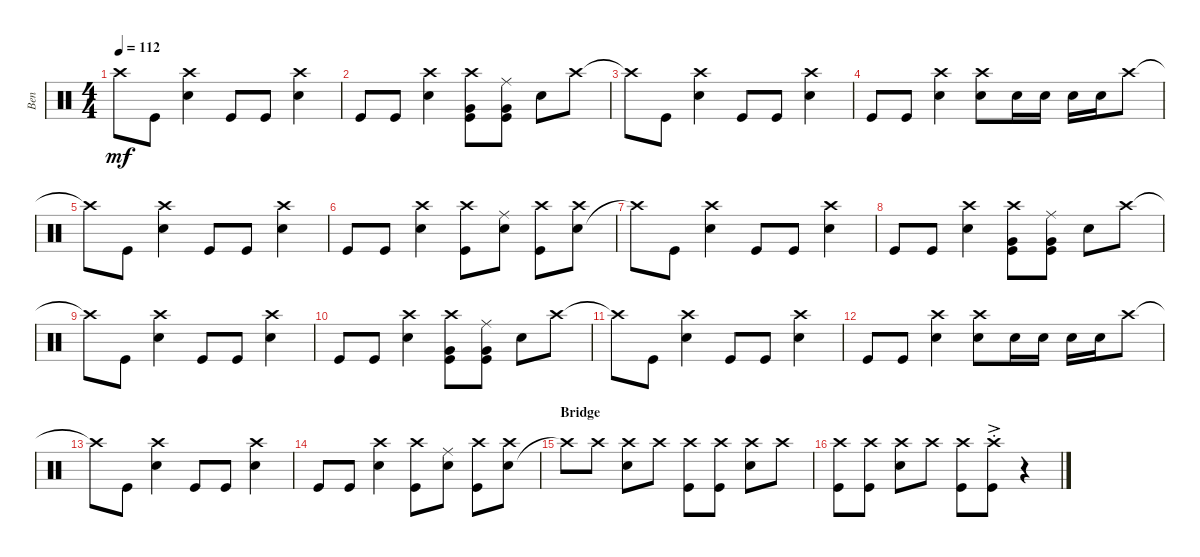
\track ("Ben" "Ben") {instrument percussion}
\staff {score}
\articulation defaults
\ts (4 4)
\tempo 112
\clef neutral
\ks c "Crash high (hit)"{t}.8{dy mf} "Kick (hit)".8
("Snare (hit) 2" "Crash high (hit)").4 "Kick (hit)".8 "Kick (hit)".8 ("Snare (hit) 2" "Crash high (hit)").4 |
"Kick (hit)".8 "Kick (hit)".8 ("Snare (hit) 2" "Crash high (hit)").4 ("Kick (hit)" "Very Low Tom (hit)" "Crash high (hit)").8 ("Kick (hit)" "Very Low Tom (hit)" "Ride (middle)").8 "Snare (hit) 2".8 "Crash high (hit)".8 |
"Crash high (hit)"{t}.8 "Kick (hit)".8 ("Snare (hit) 2" "Crash high (hit)").4 "Kick (hit)".8 "Kick (hit)".8 ("Snare (hit) 2" "Crash high (hit)").4 |
"Kick (hit)".8 "Kick (hit)".8 ("Snare (hit) 2" "Crash high (hit)").4 ("Snare (hit) 2" "Crash high (hit)").8 "Snare (hit) 2".16 "Snare (hit) 2".16 "Snare (hit) 2".16 "Snare (hit) 2".16 "Crash high (hit)".8 |
"Crash high (hit)"{t}.8 "Kick (hit)".8 ("Snare (hit) 2" "Crash high (hit)").4 "Kick (hit)".8 "Kick (hit)".8 ("Snare (hit) 2" "Crash high (hit)").4 |
"Kick (hit)".8 "Kick (hit)".8 ("Snare (hit) 2" "Crash high (hit)").4 ("Kick (hit)" "Crash high (hit)").8 ("Snare (hit) 2" "Ride (middle)").8 ("Kick (hit)" "Crash high (hit)").8 ("Snare (hit) 2" "Crash high (hit)").8 |
"Crash high (hit)"{t}.8 "Kick (hit)".8 ("Snare (hit) 2" "Crash high (hit)").4 "Kick (hit)".8 "Kick (hit)".8 ("Snare (hit) 2" "Crash high (hit)").4 |
"Kick (hit)".8 "Kick (hit)".8 ("Snare (hit) 2" "Crash high (hit)").4 ("Kick (hit)" "Very Low Tom (hit)" "Crash high (hit)").8 ("Kick (hit)" "Very Low Tom (hit)" "Ride (middle)").8 "Snare (hit) 2".8 "Crash high (hit)".8 |
"Crash high (hit)"{t}.8 "Kick (hit)".8 ("Snare (hit) 2" "Crash high (hit)").4 "Kick (hit)".8 "Kick (hit)".8 ("Snare (hit) 2" "Crash high (hit)").4 |
"Kick (hit)".8 "Kick (hit)".8 ("Snare (hit) 2" "Crash high (hit)").4 ("Kick (hit)" "Very Low Tom (hit)" "Crash high (hit)").8 ("Kick (hit)" "Very Low Tom (hit)" "Ride (middle)").8 "Snare (hit) 2".8 "Crash high (hit)".8 |
"Crash high (hit)"{t}.8 "Kick (hit)".8 ("Snare (hit) 2" "Crash high (hit)").4 "Kick (hit)".8 "Kick (hit)".8 ("Snare (hit) 2" "Crash high (hit)").4 |
"Kick (hit)".8 "Kick (hit)".8 ("Snare (hit) 2" "Crash high (hit)").4 ("Snare (hit) 2" "Crash high (hit)").8 "Snare (hit) 2".16 "Snare (hit) 2".16 "Snare (hit) 2".16 "Snare (hit) 2".16 "Crash high (hit)".8 |
"Crash high (hit)"{t}.8 "Kick (hit)".8 ("Snare (hit) 2" "Crash high (hit)").4 "Kick (hit)".8 "Kick (hit)".8 ("Snare (hit) 2" "Crash high (hit)").4 |
"Kick (hit)".8 "Kick (hit)".8 ("Snare (hit) 2" "Crash high (hit)").4 ("Kick (hit)" "Crash high (hit)").8 ("Snare (hit) 2" "Ride (middle)").8 ("Kick (hit)" "Crash high (hit)").8 ("Snare (hit) 2" "Crash high (hit)").8 |
\section ("" "Bridge")
"Crash high (hit)"{t}.8 "Crash high (hit)".8 ("Crash high (hit)" "Snare (hit) 2").8 "Crash high (hit)".8 ("Crash high (hit)" "Kick (hit)").8 ("Crash high (hit)" "Kick (hit)").8 ("Snare (hit) 2" "Crash high (hit)").8 "Crash high (hit)".8 |
("Crash high (hit)" "Kick (hit)").8 ("Crash high (hit)" "Kick (hit)").8 ("Crash high (hit)" "Snare (hit) 2").8 "Crash high (hit)".8 ("Crash high (hit)" "Kick (hit)").8 ("Crash high (hit)"{ac st} "Kick (hit)"{ac st}).8 r.4
